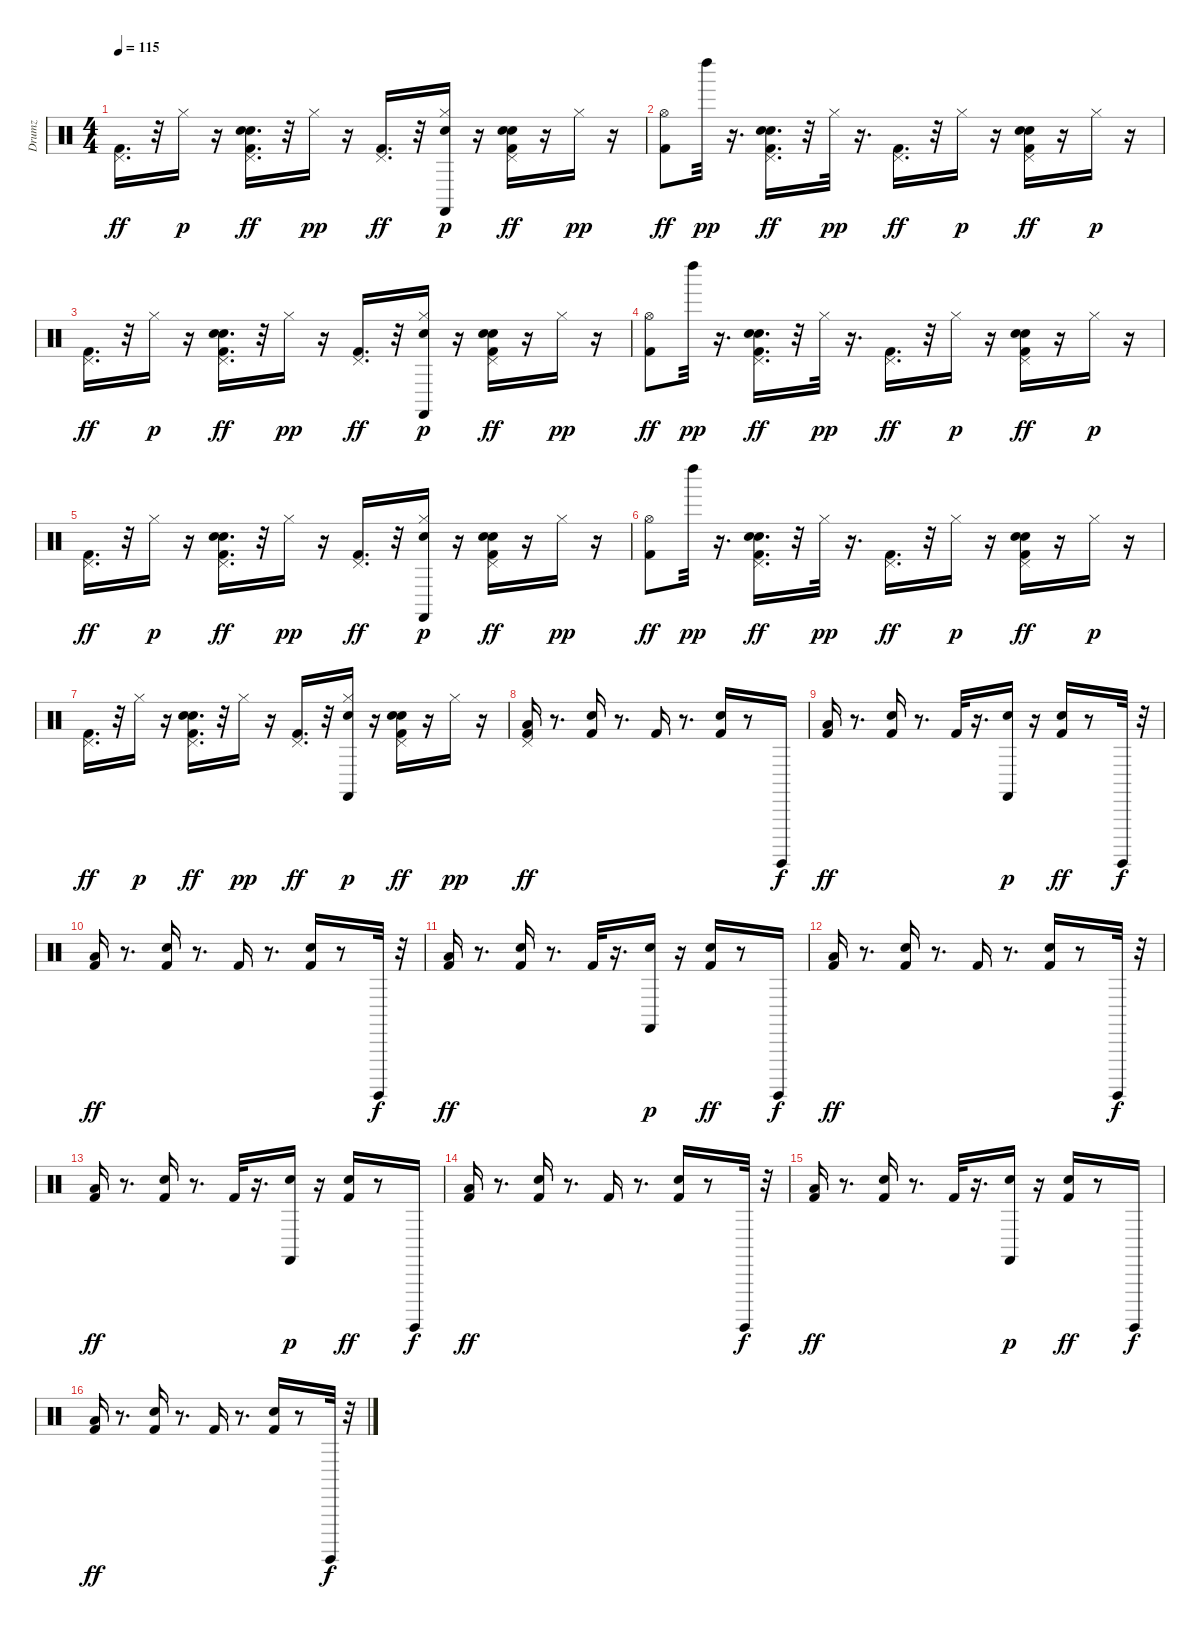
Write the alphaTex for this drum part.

\track ("Drumz" "Drumz") {instrument percussion}
\staff {score}
\articulation defaults
\ts (4 4)
\tempo 115
\clef neutral
\ks c
("Kick (hit) 2" "Pedal Hi-Hat (hit)").16{d dy ff} r.32 "Hi-Hat (closed)".16{dy p} r.16 ("Kick (hit) 2" "Pedal Hi-Hat (hit)" "Hand Clap (hit)" "Electric Snare (hit)").16{d dy ff} r.32 "Hi-Hat (closed)".16{dy pp} r.16 ("Pedal Hi-Hat (hit)" "Kick (hit) 2").16{d dy ff} r.32 ("Hi-Hat (closed)" "Castanets (hit)" "Hand Clap (hit)").16{dy p} r.16 ("Pedal Hi-Hat (hit)" "Kick (hit) 2" "Hand Clap (hit)" "Electric Snare (hit)").16{dy ff} r.16 "Hi-Hat (closed)".16{dy pp} r.16 |
("Hi-Hat (open)" "Kick (hit) 2").8{dy ff} "Left Maraca (hit)".32{dy pp} r.16{d} ("Pedal Hi-Hat (hit)" "Kick (hit) 2" "Hand Clap (hit)" "Electric Snare (hit)").16{d dy ff} r.32 "Hi-Hat (closed)".32{dy pp} r.16{d} ("Pedal Hi-Hat (hit)" "Kick (hit) 2").16{d dy ff} r.32 "Hi-Hat (closed)".16{dy p} r.16 ("Pedal Hi-Hat (hit)" "Kick (hit) 2" "Electric Snare (hit)" "Hand Clap (hit)").16{dy ff} r.16 "Hi-Hat (closed)".16{dy p} r.16 |
("Kick (hit) 2" "Pedal Hi-Hat (hit)").16{d dy ff} r.32 "Hi-Hat (closed)".16{dy p} r.16 ("Kick (hit) 2" "Pedal Hi-Hat (hit)" "Hand Clap (hit)" "Electric Snare (hit)").16{d dy ff} r.32 "Hi-Hat (closed)".16{dy pp} r.16 ("Pedal Hi-Hat (hit)" "Kick (hit) 2").16{d dy ff} r.32 ("Hi-Hat (closed)" "Castanets (hit)" "Hand Clap (hit)").16{dy p} r.16 ("Pedal Hi-Hat (hit)" "Kick (hit) 2" "Hand Clap (hit)" "Electric Snare (hit)").16{dy ff} r.16 "Hi-Hat (closed)".16{dy pp} r.16 |
("Hi-Hat (open)" "Kick (hit) 2").8{dy ff} "Left Maraca (hit)".32{dy pp} r.16{d} ("Pedal Hi-Hat (hit)" "Kick (hit) 2" "Hand Clap (hit)" "Electric Snare (hit)").16{d dy ff} r.32 "Hi-Hat (closed)".32{dy pp} r.16{d} ("Pedal Hi-Hat (hit)" "Kick (hit) 2").16{d dy ff} r.32 "Hi-Hat (closed)".16{dy p} r.16 ("Pedal Hi-Hat (hit)" "Kick (hit) 2" "Electric Snare (hit)" "Hand Clap (hit)").16{dy ff} r.16 "Hi-Hat (closed)".16{dy p} r.16 |
("Kick (hit) 2" "Pedal Hi-Hat (hit)").16{d dy ff} r.32 "Hi-Hat (closed)".16{dy p} r.16 ("Kick (hit) 2" "Pedal Hi-Hat (hit)" "Hand Clap (hit)" "Electric Snare (hit)").16{d dy ff} r.32 "Hi-Hat (closed)".16{dy pp} r.16 ("Pedal Hi-Hat (hit)" "Kick (hit) 2").16{d dy ff} r.32 ("Hi-Hat (closed)" "Castanets (hit)" "Hand Clap (hit)").16{dy p} r.16 ("Pedal Hi-Hat (hit)" "Kick (hit) 2" "Hand Clap (hit)" "Electric Snare (hit)").16{dy ff} r.16 "Hi-Hat (closed)".16{dy pp} r.16 |
("Hi-Hat (open)" "Kick (hit) 2").8{dy ff} "Left Maraca (hit)".32{dy pp} r.16{d} ("Pedal Hi-Hat (hit)" "Kick (hit) 2" "Hand Clap (hit)" "Electric Snare (hit)").16{d dy ff} r.32 "Hi-Hat (closed)".32{dy pp} r.16{d} ("Pedal Hi-Hat (hit)" "Kick (hit) 2").16{d dy ff} r.32 "Hi-Hat (closed)".16{dy p} r.16 ("Pedal Hi-Hat (hit)" "Kick (hit) 2" "Electric Snare (hit)" "Hand Clap (hit)").16{dy ff} r.16 "Hi-Hat (closed)".16{dy p} r.16 |
("Kick (hit) 2" "Pedal Hi-Hat (hit)").16{d dy ff} r.32 "Hi-Hat (closed)".16{dy p} r.16 ("Kick (hit) 2" "Pedal Hi-Hat (hit)" "Hand Clap (hit)" "Electric Snare (hit)").16{d dy ff} r.32 "Hi-Hat (closed)".16{dy pp} r.16 ("Pedal Hi-Hat (hit)" "Kick (hit) 2").16{d dy ff} r.32 ("Hi-Hat (closed)" "Castanets (hit)" "Hand Clap (hit)").16{dy p} r.16 ("Pedal Hi-Hat (hit)" "Kick (hit) 2" "Hand Clap (hit)" "Electric Snare (hit)").16{dy ff} r.16 "Hi-Hat (closed)".16{dy pp} r.16 |
("Low Floor Tom (hit)" "Kick (hit) 2" "Pedal Hi-Hat (hit)").16{dy ff} r.8{d} ("Kick (hit) 2" "Hand Clap (hit)").16 r.8{d} "Kick (hit) 2".16 r.8{d} ("Kick (hit) 2" "Hand Clap (hit)").16 r.8 "Surdo (hit)".16{dy f} |
("Kick (hit) 2" "Low Floor Tom (hit)").16{dy ff} r.8{d} ("Kick (hit) 2" "Hand Clap (hit)").16 r.8{d} "Kick (hit) 2".32 r.16{d} ("Castanets (hit)" "Hand Clap (hit)").16{dy p} r.16 ("Kick (hit) 2" "Hand Clap (hit)").16{dy ff} r.8 "Surdo (hit)".32{dy f} r.32 |
("Kick (hit) 2" "Low Floor Tom (hit)").16{dy ff} r.8{d} ("Kick (hit) 2" "Hand Clap (hit)").16 r.8{d} "Kick (hit) 2".16 r.8{d} ("Kick (hit) 2" "Hand Clap (hit)").16 r.8 "Surdo (hit)".32{dy f} r.32 |
("Kick (hit) 2" "Low Floor Tom (hit)").16{dy ff} r.8{d} ("Kick (hit) 2" "Hand Clap (hit)").16 r.8{d} "Kick (hit) 2".32 r.16{d} ("Castanets (hit)" "Hand Clap (hit)").16{dy p} r.16 ("Kick (hit) 2" "Hand Clap (hit)").16{dy ff} r.8 "Surdo (hit)".16{dy f} |
("Kick (hit) 2" "Low Floor Tom (hit)").16{dy ff} r.8{d} ("Kick (hit) 2" "Hand Clap (hit)").16 r.8{d} "Kick (hit) 2".16 r.8{d} ("Kick (hit) 2" "Hand Clap (hit)").16 r.8 "Surdo (hit)".32{dy f} r.32 |
("Kick (hit) 2" "Low Floor Tom (hit)").16{dy ff} r.8{d} ("Kick (hit) 2" "Hand Clap (hit)").16 r.8{d} "Kick (hit) 2".32 r.16{d} ("Castanets (hit)" "Hand Clap (hit)").16{dy p} r.16 ("Kick (hit) 2" "Hand Clap (hit)").16{dy ff} r.8 "Surdo (hit)".16{dy f} |
("Kick (hit) 2" "Low Floor Tom (hit)").16{dy ff} r.8{d} ("Kick (hit) 2" "Hand Clap (hit)").16 r.8{d} "Kick (hit) 2".16 r.8{d} ("Kick (hit) 2" "Hand Clap (hit)").16 r.8 "Surdo (hit)".32{dy f} r.32 |
("Kick (hit) 2" "Low Floor Tom (hit)").16{dy ff} r.8{d} ("Kick (hit) 2" "Hand Clap (hit)").16 r.8{d} "Kick (hit) 2".32 r.16{d} ("Castanets (hit)" "Hand Clap (hit)").16{dy p} r.16 ("Kick (hit) 2" "Hand Clap (hit)").16{dy ff} r.8 "Surdo (hit)".16{dy f} |
("Kick (hit) 2" "Low Floor Tom (hit)").16{dy ff} r.8{d} ("Kick (hit) 2" "Hand Clap (hit)").16 r.8{d} "Kick (hit) 2".16 r.8{d} ("Kick (hit) 2" "Hand Clap (hit)").16 r.8 "Surdo (hit)".32{dy f} r.32
